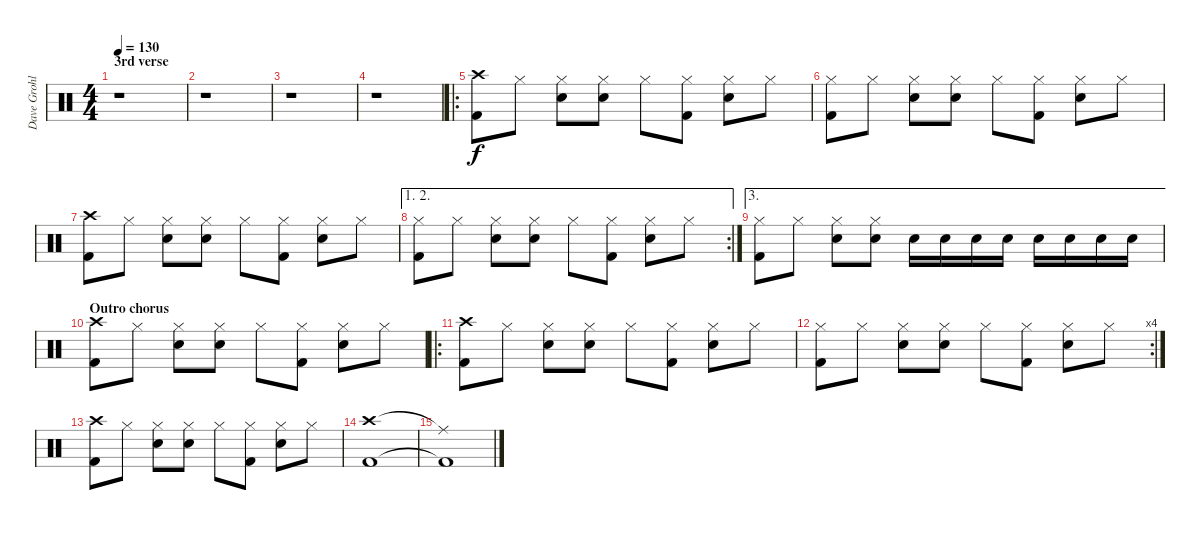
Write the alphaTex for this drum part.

\track ("Dave Grohl" "Dave Grohl") {instrument percussion}
\staff {score}
\articulation defaults
\ts (4 4)
\section ("" "3rd verse")
\tempo 130
\clef neutral
\ks c
r.1{dy f} |
r.1 |
r.1 |
r.1 |
\ro
("Crash high (hit)" "Kick (hit) 2").8 "Hi-Hat (closed)".8 ("Hi-Hat (closed)" "Electric Snare (hit)").8 ("Hi-Hat (closed)" "Electric Snare (hit)").8 "Hi-Hat (closed)".8 ("Hi-Hat (closed)" "Kick (hit) 2").8 ("Hi-Hat (closed)" "Electric Snare (hit)").8 "Hi-Hat (closed)".8 |
("Hi-Hat (closed)" "Kick (hit) 2").8 "Hi-Hat (closed)".8 ("Hi-Hat (closed)" "Electric Snare (hit)").8 ("Hi-Hat (closed)" "Electric Snare (hit)").8 "Hi-Hat (closed)".8 ("Hi-Hat (closed)" "Kick (hit) 2").8 ("Hi-Hat (closed)" "Electric Snare (hit)").8 "Hi-Hat (closed)".8 |
("Crash high (hit)" "Kick (hit) 2").8 "Hi-Hat (closed)".8 ("Hi-Hat (closed)" "Electric Snare (hit)").8 ("Hi-Hat (closed)" "Electric Snare (hit)").8 "Hi-Hat (closed)".8 ("Hi-Hat (closed)" "Kick (hit) 2").8 ("Hi-Hat (closed)" "Electric Snare (hit)").8 "Hi-Hat (closed)".8 |
\ae (1 2)
\rc 2
("Hi-Hat (closed)" "Kick (hit) 2").8 "Hi-Hat (closed)".8 ("Hi-Hat (closed)" "Electric Snare (hit)").8 ("Hi-Hat (closed)" "Electric Snare (hit)").8 "Hi-Hat (closed)".8 ("Hi-Hat (closed)" "Kick (hit) 2").8 ("Hi-Hat (closed)" "Electric Snare (hit)").8 "Hi-Hat (closed)".8 |
\ae 3
("Hi-Hat (closed)" "Kick (hit) 2").8 "Hi-Hat (closed)".8 ("Hi-Hat (closed)" "Electric Snare (hit)").8 ("Hi-Hat (closed)" "Electric Snare (hit)").8 "Electric Snare (hit)".16 "Electric Snare (hit)".16 "Electric Snare (hit)".16 "Electric Snare (hit)".16 "Electric Snare (hit)".16 "Electric Snare (hit)".16 "Electric Snare (hit)".16 "Electric Snare (hit)".16 |
\section ("" "Outro chorus")
("Crash high (hit)" "Kick (hit) 2").8 "Hi-Hat (closed)".8 ("Hi-Hat (closed)" "Electric Snare (hit)").8 ("Hi-Hat (closed)" "Electric Snare (hit)").8 "Hi-Hat (closed)".8 ("Hi-Hat (closed)" "Kick (hit) 2").8 ("Hi-Hat (closed)" "Electric Snare (hit)").8 "Hi-Hat (closed)".8 |
\ro
("Crash high (hit)" "Kick (hit) 2").8 "Hi-Hat (closed)".8 ("Hi-Hat (closed)" "Electric Snare (hit)").8 ("Hi-Hat (closed)" "Electric Snare (hit)").8 "Hi-Hat (closed)".8 ("Hi-Hat (closed)" "Kick (hit) 2").8 ("Hi-Hat (closed)" "Electric Snare (hit)").8 "Hi-Hat (closed)".8 |
\rc 4
("Hi-Hat (closed)" "Kick (hit) 2").8 "Hi-Hat (closed)".8 ("Hi-Hat (closed)" "Electric Snare (hit)").8 ("Hi-Hat (closed)" "Electric Snare (hit)").8 "Hi-Hat (closed)".8 ("Hi-Hat (closed)" "Kick (hit) 2").8 ("Hi-Hat (closed)" "Electric Snare (hit)").8 "Hi-Hat (closed)".8 |
("Crash high (hit)" "Kick (hit) 2").8 "Hi-Hat (closed)".8 ("Hi-Hat (closed)" "Electric Snare (hit)").8 ("Hi-Hat (closed)" "Electric Snare (hit)").8 "Hi-Hat (closed)".8 ("Hi-Hat (closed)" "Kick (hit) 2").8 ("Hi-Hat (closed)" "Electric Snare (hit)").8 "Hi-Hat (closed)".8 |
("Crash high (hit)" "Kick (hit) 2").1 |
("Ride (middle)"{t} "Kick (hit) 2"{t}).1
